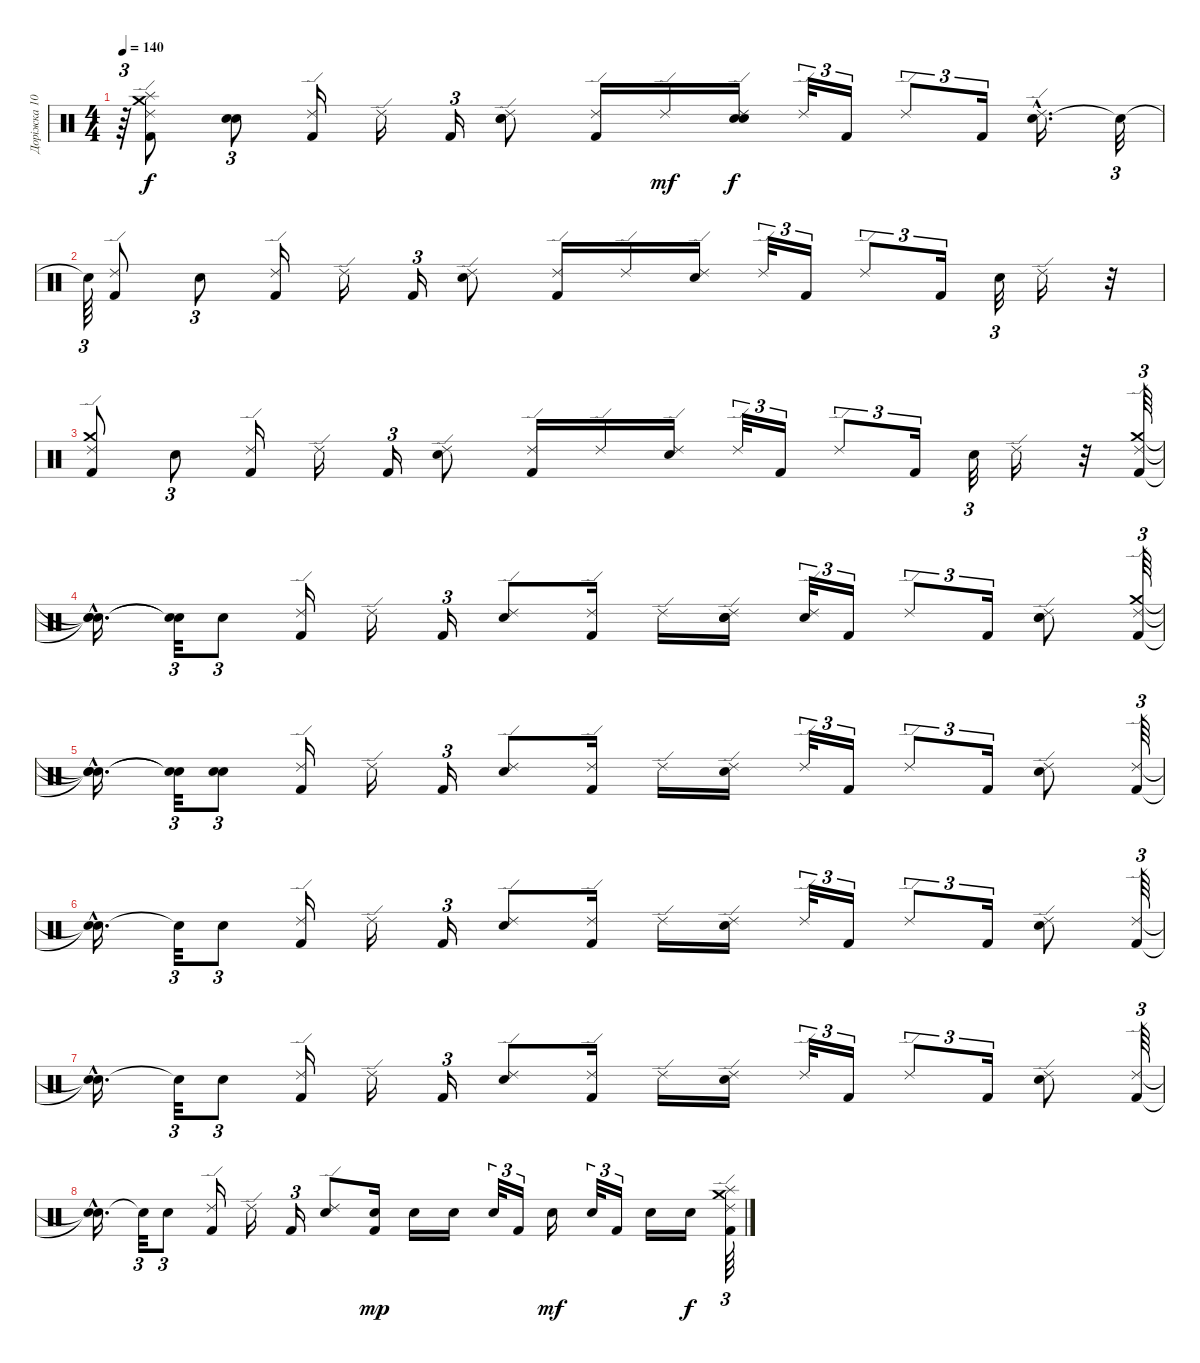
\track ("Доріжка 10" "Доріжка 10") {instrument percussion}
\staff {score}
\articulation defaults
\ts (4 4)
\tempo 140
\clef neutral
\ks c
r.64{tu (3 2) dy f} ("Ride (edge) 2" "Crash medium (hit)" "Kick (hit) 2" "Splash (hit)").8 ("Electric Snare (hit)" "Electric Snare (hit)").8{tu (3 2)} ("Ride (edge) 2" "Kick (hit) 2").16 "Ride (edge) 2".16 "Kick (hit) 2".16{tu (3 2)} ("Ride (edge) 2" "Electric Snare (hit)" "Electric Snare (hit)").8 ("Ride (edge) 2" "Kick (hit) 2").16 "Ride (edge) 2".16{dy mf} ("Ride (edge) 2" "Electric Snare (hit)" "Electric Snare (hit)").16{dy f} "Ride (edge) 2".32{tu (3 2)} "Kick (hit) 2".16{tu (3 2)} "Ride (edge) 2".8{tu (3 2)} "Kick (hit) 2".16{tu (3 2)} ("Electric Snare (hit)"{hac} "Ride (edge) 2").16{d} "Snare (hit)"{t}.32{tu (3 2)} |
"Snare (hit)"{t}.64{tu (3 2)} ("Ride (edge) 2" "Kick (hit) 2").8 "Electric Snare (hit)".8{tu (3 2)} ("Ride (edge) 2" "Kick (hit) 2").16 "Ride (edge) 2".16 "Kick (hit) 2".16{tu (3 2)} ("Ride (edge) 2" "Electric Snare (hit)").8 ("Ride (edge) 2" "Kick (hit) 2").16 "Ride (edge) 2".16 ("Ride (edge) 2" "Electric Snare (hit)").16 "Ride (edge) 2".32{tu (3 2)} "Kick (hit) 2".16{tu (3 2)} "Ride (edge) 2".8{tu (3 2)} "Kick (hit) 2".16{tu (3 2)} "Electric Snare (hit)".32{tu (3 2)} "Ride (edge) 2".16 r.32 |
("Ride (edge) 2" "Crash medium (hit)" "Kick (hit) 2").8 "Electric Snare (hit)".8{tu (3 2)} ("Kick (hit) 2" "Ride (edge) 2").16 "Ride (edge) 2".16 "Kick (hit) 2".16{tu (3 2)} ("Ride (edge) 2" "Electric Snare (hit)").8 ("Ride (edge) 2" "Kick (hit) 2").16 "Ride (edge) 2".16 ("Ride (edge) 2" "Electric Snare (hit)").16 "Ride (edge) 2".32{tu (3 2)} "Kick (hit) 2".16{tu (3 2)} "Ride (edge) 2".8{tu (3 2)} "Kick (hit) 2".16{tu (3 2)} "Electric Snare (hit)".32{tu (3 2)} "Ride (edge) 2".16 r.32 ("Ride (edge) 2" "Crash medium (hit)" "Kick (hit) 2").64{tu (3 2)} |
("Snare (hit)"{hac t} "Snare (hit)"{hac t} "Snare (hit)"{hac t}).16{d} ("Snare (hit)"{t} "Snare (hit)"{t}).32{tu (3 2)} "Electric Snare (hit)".8{tu (3 2)} ("Kick (hit) 2" "Ride (edge) 2").16 "Ride (edge) 2".16 "Kick (hit) 2".16{tu (3 2)} ("Ride (edge) 2" "Electric Snare (hit)").8 ("Ride (edge) 2" "Kick (hit) 2").16 "Ride (edge) 2".16 ("Ride (edge) 2" "Electric Snare (hit)" "Electric Snare (hit)" "Electric Snare (hit)").16 ("Ride (edge) 2" "Electric Snare (hit)").32{tu (3 2)} "Kick (hit) 2".16{tu (3 2)} "Ride (edge) 2".8{tu (3 2)} "Kick (hit) 2".16{tu (3 2)} ("Electric Snare (hit)" "Electric Snare (hit)" "Ride (edge) 2").8 ("Ride (edge) 2" "Kick (hit) 2" "Crash medium (hit)").64{tu (3 2)} |
("Snare (hit)"{hac t} "Snare (hit)"{hac t} "Snare (hit)"{hac t}).16{d} ("Snare (hit)"{t} "Snare (hit)"{t}).32{tu (3 2)} ("Electric Snare (hit)" "Electric Snare (hit)").8{tu (3 2)} ("Ride (edge) 2" "Kick (hit) 2").16 "Ride (edge) 2".16 "Kick (hit) 2".16{tu (3 2)} ("Ride (edge) 2" "Electric Snare (hit)").8 ("Ride (edge) 2" "Kick (hit) 2").16 "Ride (edge) 2".16 ("Ride (edge) 2" "Electric Snare (hit)").16 "Ride (edge) 2".32{tu (3 2)} "Kick (hit) 2".16{tu (3 2)} "Ride (edge) 2".8{tu (3 2)} "Kick (hit) 2".16{tu (3 2)} ("Ride (edge) 2" "Electric Snare (hit)").8 ("Ride (edge) 2" "Kick (hit) 2").64{tu (3 2)} |
("Snare (hit)"{hac t} "Snare (hit)"{hac t}).16{d} "Snare (hit)"{t}.32{tu (3 2)} "Electric Snare (hit)".8{tu (3 2)} ("Ride (edge) 2" "Kick (hit) 2").16 "Ride (edge) 2".16 "Kick (hit) 2".16{tu (3 2)} ("Electric Snare (hit)" "Ride (edge) 2").8 ("Ride (edge) 2" "Kick (hit) 2").16 "Ride (edge) 2".16 ("Ride (edge) 2" "Electric Snare (hit)").16 "Ride (edge) 2".32{tu (3 2)} "Kick (hit) 2".16{tu (3 2)} "Ride (edge) 2".8{tu (3 2)} "Kick (hit) 2".16{tu (3 2)} ("Ride (edge) 2" "Electric Snare (hit)").8 ("Kick (hit) 2" "Ride (edge) 2").64{tu (3 2)} |
("Snare (hit)"{hac t} "Snare (hit)"{hac t}).16{d} "Snare (hit)"{t}.32{tu (3 2)} "Electric Snare (hit)".8{tu (3 2)} ("Kick (hit) 2" "Ride (edge) 2").16 "Ride (edge) 2".16 "Kick (hit) 2".16{tu (3 2)} ("Electric Snare (hit)" "Ride (edge) 2").8 ("Kick (hit) 2" "Ride (edge) 2").16 "Ride (edge) 2".16 ("Electric Snare (hit)" "Ride (edge) 2").16 "Ride (edge) 2".32{tu (3 2)} "Kick (hit) 2".16{tu (3 2)} "Ride (edge) 2".8{tu (3 2)} "Kick (hit) 2".16{tu (3 2)} ("Electric Snare (hit)" "Ride (edge) 2").8 ("Kick (hit) 2" "Ride (edge) 2").64{tu (3 2)} |
("Snare (hit)"{hac t} "Snare (hit)"{hac t}).16{d} "Snare (hit)"{t}.32{tu (3 2)} "Electric Snare (hit)".8{tu (3 2)} ("Kick (hit) 2" "Ride (edge) 2").16 "Ride (edge) 2".16 "Kick (hit) 2".16{tu (3 2)} ("Electric Snare (hit)" "Ride (edge) 2").8 ("Electric Snare (hit)" "Kick (hit) 2").16{dy mp} "Electric Snare (hit)".16 "Electric Snare (hit)".16 "Electric Snare (hit)".32{tu (3 2)} "Kick (hit) 2".16{tu (3 2)} "Electric Snare (hit)".16{dy mf} "Electric Snare (hit)".32{tu (3 2)} "Kick (hit) 2".16{tu (3 2)} "Electric Snare (hit)".16 "Electric Snare (hit)".16{dy f} ("Kick (hit) 2" "Splash (hit)" "Ride (edge) 2" "Crash medium (hit)").64{tu (3 2)}
